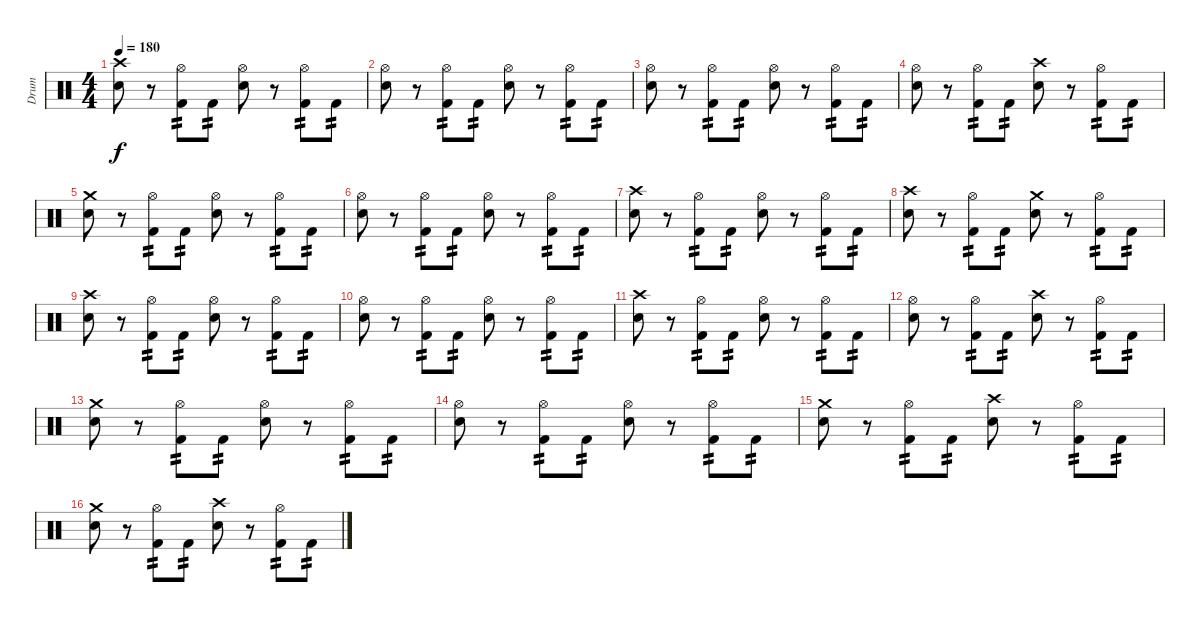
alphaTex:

\track ("Drum" "Drum") {instrument percussion}
\staff {score}
\articulation defaults
\ts (4 4)
\tempo 180
\clef neutral
\ks c
("Crash high (hit)" "Electric Snare (hit)").8{dy f} r.8 ("Hi-Hat (open)" "Kick (hit) 2").8{tp 2} "Kick (hit) 2".8{tp 2} ("Hi-Hat (open)" "Electric Snare (hit)").8 r.8 ("Hi-Hat (open)" "Kick (hit) 2").8{tp 2} "Kick (hit) 2".8{tp 2} |
("Hi-Hat (open)" "Electric Snare (hit)").8 r.8 ("Hi-Hat (open)" "Kick (hit) 2").8{tp 2} "Kick (hit) 2".8{tp 2} ("Hi-Hat (open)" "Electric Snare (hit)").8 r.8 ("Hi-Hat (open)" "Kick (hit) 2").8{tp 2} "Kick (hit) 2".8{tp 2} |
("Hi-Hat (open)" "Electric Snare (hit)").8 r.8 ("Hi-Hat (open)" "Kick (hit) 2").8{tp 2} "Kick (hit) 2".8{tp 2} ("Hi-Hat (open)" "Electric Snare (hit)").8 r.8 ("Hi-Hat (open)" "Kick (hit) 2").8{tp 2} "Kick (hit) 2".8{tp 2} |
("Hi-Hat (open)" "Electric Snare (hit)").8 r.8 ("Hi-Hat (open)" "Kick (hit) 2").8{tp 2} "Kick (hit) 2".8{tp 2} ("Crash high (hit)" "Electric Snare (hit)").8 r.8 ("Hi-Hat (open)" "Kick (hit) 2").8{tp 2} "Kick (hit) 2".8{tp 2} |
("Crash medium (hit)" "Electric Snare (hit)").8 r.8 ("Hi-Hat (open)" "Kick (hit) 2").8{tp 2} "Kick (hit) 2".8{tp 2} ("Hi-Hat (open)" "Electric Snare (hit)").8 r.8 ("Hi-Hat (open)" "Kick (hit) 2").8{tp 2} "Kick (hit) 2".8{tp 2} |
("Hi-Hat (open)" "Electric Snare (hit)").8 r.8 ("Hi-Hat (open)" "Kick (hit) 2").8{tp 2} "Kick (hit) 2".8{tp 2} ("Hi-Hat (open)" "Electric Snare (hit)").8 r.8 ("Hi-Hat (open)" "Kick (hit) 2").8{tp 2} "Kick (hit) 2".8{tp 2} |
("Crash high (hit)" "Electric Snare (hit)").8 r.8 ("Hi-Hat (open)" "Kick (hit) 2").8{tp 2} "Kick (hit) 2".8{tp 2} ("Hi-Hat (open)" "Electric Snare (hit)").8 r.8 ("Hi-Hat (open)" "Kick (hit) 2").8{tp 2} "Kick (hit) 2".8{tp 2} |
("Crash high (hit)" "Electric Snare (hit)").8 r.8 ("Hi-Hat (open)" "Kick (hit) 2").8{tp 2} "Kick (hit) 2".8{tp 2} ("Crash medium (hit)" "Electric Snare (hit)").8 r.8 ("Hi-Hat (open)" "Kick (hit) 2").8{tp 2} "Kick (hit) 2".8{tp 2} |
("Crash high (hit)" "Electric Snare (hit)").8 r.8 ("Hi-Hat (open)" "Kick (hit) 2").8{tp 2} "Kick (hit) 2".8{tp 2} ("Hi-Hat (open)" "Electric Snare (hit)").8 r.8 ("Hi-Hat (open)" "Kick (hit) 2").8{tp 2} "Kick (hit) 2".8{tp 2} |
("Hi-Hat (open)" "Electric Snare (hit)").8 r.8 ("Hi-Hat (open)" "Kick (hit) 2").8{tp 2} "Kick (hit) 2".8{tp 2} ("Hi-Hat (open)" "Electric Snare (hit)").8 r.8 ("Hi-Hat (open)" "Kick (hit) 2").8{tp 2} "Kick (hit) 2".8{tp 2} |
("Crash high (hit)" "Electric Snare (hit)").8 r.8 ("Hi-Hat (open)" "Kick (hit) 2").8{tp 2} "Kick (hit) 2".8{tp 2} ("Hi-Hat (open)" "Electric Snare (hit)").8 r.8 ("Hi-Hat (open)" "Kick (hit) 2").8{tp 2} "Kick (hit) 2".8{tp 2} |
("Hi-Hat (open)" "Electric Snare (hit)").8 r.8 ("Hi-Hat (open)" "Kick (hit) 2").8{tp 2} "Kick (hit) 2".8{tp 2} ("Crash high (hit)" "Electric Snare (hit)").8 r.8 ("Hi-Hat (open)" "Kick (hit) 2").8{tp 2} "Kick (hit) 2".8{tp 2} |
("Crash medium (hit)" "Electric Snare (hit)").8 r.8 ("Hi-Hat (open)" "Kick (hit) 2").8{tp 2} "Kick (hit) 2".8{tp 2} ("Hi-Hat (open)" "Electric Snare (hit)").8 r.8 ("Hi-Hat (open)" "Kick (hit) 2").8{tp 2} "Kick (hit) 2".8{tp 2} |
("Hi-Hat (open)" "Electric Snare (hit)").8 r.8 ("Hi-Hat (open)" "Kick (hit) 2").8{tp 2} "Kick (hit) 2".8{tp 2} ("Hi-Hat (open)" "Electric Snare (hit)").8 r.8 ("Hi-Hat (open)" "Kick (hit) 2").8{tp 2} "Kick (hit) 2".8{tp 2} |
("Crash medium (hit)" "Electric Snare (hit)").8 r.8 ("Hi-Hat (open)" "Kick (hit) 2").8{tp 2} "Kick (hit) 2".8{tp 2} ("Crash high (hit)" "Electric Snare (hit)").8 r.8 ("Hi-Hat (open)" "Kick (hit) 2").8{tp 2} "Kick (hit) 2".8{tp 2} |
("Crash medium (hit)" "Electric Snare (hit)").8 r.8 ("Hi-Hat (open)" "Kick (hit) 2").8{tp 2} "Kick (hit) 2".8{tp 2} ("Crash high (hit)" "Electric Snare (hit)").8 r.8 ("Hi-Hat (open)" "Kick (hit) 2").8{tp 2} "Kick (hit) 2".8{tp 2}
